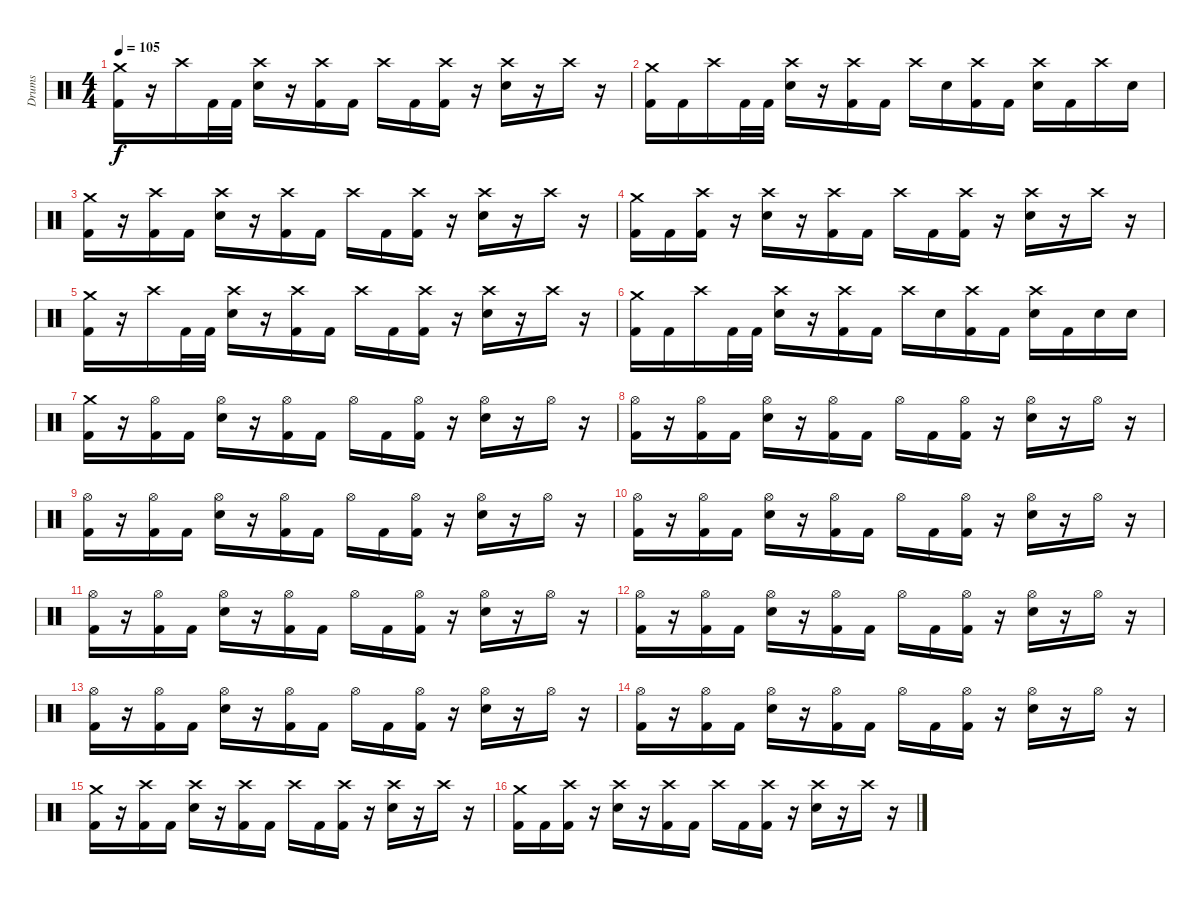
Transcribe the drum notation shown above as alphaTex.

\track ("Drums" "Drums") {instrument percussion}
\staff {score}
\articulation defaults
\ts (4 4)
\tempo 105
\clef neutral
\ks c
("Crash medium (hit)" "Kick (hit) 2").16{dy f} r.16 "Crash high (hit)".16 "Kick (hit) 2".32 "Kick (hit) 2".32 ("Crash high (hit)" "Electric Snare (hit)").16 r.16 ("Crash high (hit)" "Kick (hit) 2").16 "Kick (hit) 2".16 "Crash high (hit)".16 "Kick (hit) 2".16 ("Crash high (hit)" "Kick (hit) 2").16 r.16 ("Crash high (hit)" "Electric Snare (hit)").16 r.16 "Crash high (hit)".16 r.16 |
("Crash medium (hit)" "Kick (hit) 2").16 "Kick (hit) 2".16 "Crash high (hit)".16 "Kick (hit) 2".32 "Kick (hit) 2".32 ("Crash high (hit)" "Electric Snare (hit)").16 r.16 ("Crash high (hit)" "Kick (hit) 2").16 "Kick (hit) 2".16 "Crash high (hit)".16 "Electric Snare (hit)".16 ("Crash high (hit)" "Kick (hit) 2").16 "Kick (hit) 2".16 ("Crash high (hit)" "Electric Snare (hit)").16 "Kick (hit) 2".16 "Crash high (hit)".16 "Electric Snare (hit)".16 |
("Crash medium (hit)" "Kick (hit) 2").16 r.16 ("Crash high (hit)" "Kick (hit) 2").16 "Kick (hit) 2".16 ("Crash high (hit)" "Electric Snare (hit)").16 r.16 ("Crash high (hit)" "Kick (hit) 2").16 "Kick (hit) 2".16 "Crash high (hit)".16 "Kick (hit) 2".16 ("Crash high (hit)" "Kick (hit) 2").16 r.16 ("Crash high (hit)" "Electric Snare (hit)").16 r.16 "Crash high (hit)".16 r.16 |
("Crash medium (hit)" "Kick (hit) 2").16 "Kick (hit) 2".16 ("Crash high (hit)" "Kick (hit) 2").16 r.16 ("Crash high (hit)" "Electric Snare (hit)").16 r.16 ("Crash high (hit)" "Kick (hit) 2").16 "Kick (hit) 2".16 "Crash high (hit)".16 "Kick (hit) 2".16 ("Crash high (hit)" "Kick (hit) 2").16 r.16 ("Crash high (hit)" "Electric Snare (hit)").16 r.16 "Crash high (hit)".16 r.16 |
("Crash medium (hit)" "Kick (hit) 2").16 r.16 "Crash high (hit)".16 "Kick (hit) 2".32 "Kick (hit) 2".32 ("Crash high (hit)" "Electric Snare (hit)").16 r.16 ("Crash high (hit)" "Kick (hit) 2").16 "Kick (hit) 2".16 "Crash high (hit)".16 "Kick (hit) 2".16 ("Crash high (hit)" "Kick (hit) 2").16 r.16 ("Crash high (hit)" "Electric Snare (hit)").16 r.16 "Crash high (hit)".16 r.16 |
("Crash medium (hit)" "Kick (hit) 2").16 "Kick (hit) 2".16 "Crash high (hit)".16 "Kick (hit) 2".32 "Kick (hit) 2".32 ("Crash high (hit)" "Electric Snare (hit)").16 r.16 ("Crash high (hit)" "Kick (hit) 2").16 "Kick (hit) 2".16 "Crash high (hit)".16 "Electric Snare (hit)".16 ("Crash high (hit)" "Kick (hit) 2").16 "Kick (hit) 2".16 ("Crash high (hit)" "Electric Snare (hit)").16 "Kick (hit) 2".16 "Electric Snare (hit)".16 "Electric Snare (hit)".16 |
("Crash medium (hit)" "Kick (hit) 2").16 r.16 ("Hi-Hat (open)" "Kick (hit) 2").16 "Kick (hit) 2".16 ("Hi-Hat (open)" "Electric Snare (hit)").16 r.16 ("Hi-Hat (open)" "Kick (hit) 2").16 "Kick (hit) 2".16 "Hi-Hat (open)".16 "Kick (hit) 2".16 ("Hi-Hat (open)" "Kick (hit) 2").16 r.16 ("Hi-Hat (open)" "Electric Snare (hit)").16 r.16 "Hi-Hat (open)".16 r.16 |
("Hi-Hat (open)" "Kick (hit) 2").16 r.16 ("Hi-Hat (open)" "Kick (hit) 2").16 "Kick (hit) 2".16 ("Hi-Hat (open)" "Electric Snare (hit)").16 r.16 ("Hi-Hat (open)" "Kick (hit) 2").16 "Kick (hit) 2".16 "Hi-Hat (open)".16 "Kick (hit) 2".16 ("Hi-Hat (open)" "Kick (hit) 2").16 r.16 ("Hi-Hat (open)" "Electric Snare (hit)").16 r.16 "Hi-Hat (open)".16 r.16 |
("Hi-Hat (open)" "Kick (hit) 2").16 r.16 ("Hi-Hat (open)" "Kick (hit) 2").16 "Kick (hit) 2".16 ("Hi-Hat (open)" "Electric Snare (hit)").16 r.16 ("Hi-Hat (open)" "Kick (hit) 2").16 "Kick (hit) 2".16 "Hi-Hat (open)".16 "Kick (hit) 2".16 ("Hi-Hat (open)" "Kick (hit) 2").16 r.16 ("Hi-Hat (open)" "Electric Snare (hit)").16 r.16 "Hi-Hat (open)".16 r.16 |
("Hi-Hat (open)" "Kick (hit) 2").16 r.16 ("Hi-Hat (open)" "Kick (hit) 2").16 "Kick (hit) 2".16 ("Hi-Hat (open)" "Electric Snare (hit)").16 r.16 ("Hi-Hat (open)" "Kick (hit) 2").16 "Kick (hit) 2".16 "Hi-Hat (open)".16 "Kick (hit) 2".16 ("Hi-Hat (open)" "Kick (hit) 2").16 r.16 ("Hi-Hat (open)" "Electric Snare (hit)").16 r.16 "Hi-Hat (open)".16 r.16 |
("Hi-Hat (open)" "Kick (hit) 2").16 r.16 ("Hi-Hat (open)" "Kick (hit) 2").16 "Kick (hit) 2".16 ("Hi-Hat (open)" "Electric Snare (hit)").16 r.16 ("Hi-Hat (open)" "Kick (hit) 2").16 "Kick (hit) 2".16 "Hi-Hat (open)".16 "Kick (hit) 2".16 ("Hi-Hat (open)" "Kick (hit) 2").16 r.16 ("Hi-Hat (open)" "Electric Snare (hit)").16 r.16 "Hi-Hat (open)".16 r.16 |
("Hi-Hat (open)" "Kick (hit) 2").16 r.16 ("Hi-Hat (open)" "Kick (hit) 2").16 "Kick (hit) 2".16 ("Hi-Hat (open)" "Electric Snare (hit)").16 r.16 ("Hi-Hat (open)" "Kick (hit) 2").16 "Kick (hit) 2".16 "Hi-Hat (open)".16 "Kick (hit) 2".16 ("Hi-Hat (open)" "Kick (hit) 2").16 r.16 ("Hi-Hat (open)" "Electric Snare (hit)").16 r.16 "Hi-Hat (open)".16 r.16 |
("Hi-Hat (open)" "Kick (hit) 2").16 r.16 ("Hi-Hat (open)" "Kick (hit) 2").16 "Kick (hit) 2".16 ("Hi-Hat (open)" "Electric Snare (hit)").16 r.16 ("Hi-Hat (open)" "Kick (hit) 2").16 "Kick (hit) 2".16 "Hi-Hat (open)".16 "Kick (hit) 2".16 ("Hi-Hat (open)" "Kick (hit) 2").16 r.16 ("Hi-Hat (open)" "Electric Snare (hit)").16 r.16 "Hi-Hat (open)".16 r.16 |
("Hi-Hat (open)" "Kick (hit) 2").16 r.16 ("Hi-Hat (open)" "Kick (hit) 2").16 "Kick (hit) 2".16 ("Hi-Hat (open)" "Electric Snare (hit)").16 r.16 ("Hi-Hat (open)" "Kick (hit) 2").16 "Kick (hit) 2".16 "Hi-Hat (open)".16 "Kick (hit) 2".16 ("Hi-Hat (open)" "Kick (hit) 2").16 r.16 ("Hi-Hat (open)" "Electric Snare (hit)").16 r.16 "Hi-Hat (open)".16 r.16 |
("Crash medium (hit)" "Kick (hit) 2").16 r.16 ("Crash high (hit)" "Kick (hit) 2").16 "Kick (hit) 2".16 ("Crash high (hit)" "Electric Snare (hit)").16 r.16 ("Crash high (hit)" "Kick (hit) 2").16 "Kick (hit) 2".16 "Crash high (hit)".16 "Kick (hit) 2".16 ("Crash high (hit)" "Kick (hit) 2").16 r.16 ("Crash high (hit)" "Electric Snare (hit)").16 r.16 "Crash high (hit)".16 r.16 |
("Crash medium (hit)" "Kick (hit) 2").16 "Kick (hit) 2".16 ("Crash high (hit)" "Kick (hit) 2").16 r.16 ("Crash high (hit)" "Electric Snare (hit)").16 r.16 ("Crash high (hit)" "Kick (hit) 2").16 "Kick (hit) 2".16 "Crash high (hit)".16 "Kick (hit) 2".16 ("Crash high (hit)" "Kick (hit) 2").16 r.16 ("Crash high (hit)" "Electric Snare (hit)").16 r.16 "Crash high (hit)".16 r.16
